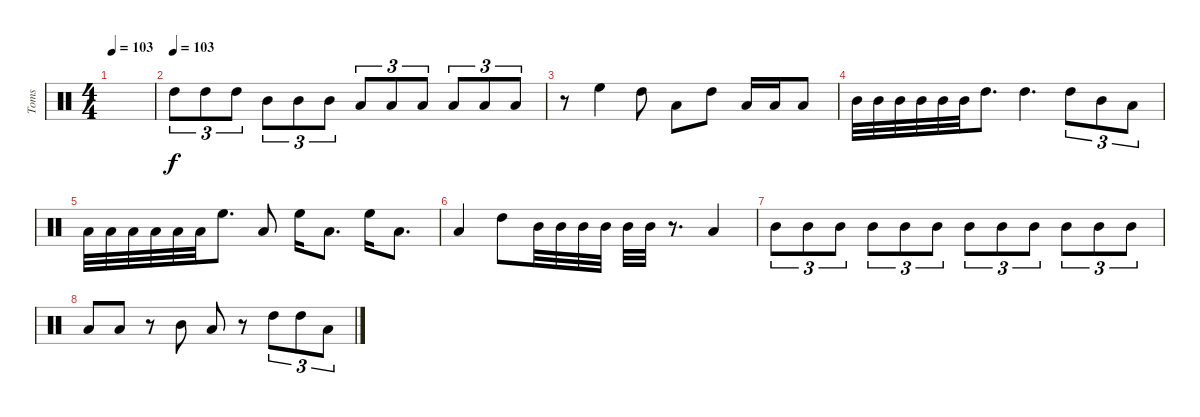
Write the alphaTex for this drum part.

\track ("Toms" "Toms") {instrument percussion}
\staff {score}
\articulation defaults
\ts (4 4)
\tempo 103
\clef neutral
\ks c
|
\tempo (103)
"High Tom (hit)".8{tu (3 2)} "High Tom (hit)".8{tu (3 2)} "High Tom (hit)".8{tu (3 2)} "Mid Tom (hit)".8{tu (3 2)} "Mid Tom (hit)".8{tu (3 2)} "Mid Tom (hit)".8{tu (3 2)} "Low Tom (hit)".8{tu (3 2)} "Low Tom (hit)".8{tu (3 2)} "Low Tom (hit)".8{tu (3 2)} "Low Floor Tom (hit)".8{tu (3 2)} "Low Floor Tom (hit)".8{tu (3 2)} "Low Floor Tom (hit)".8{tu (3 2)} |
r.8 "High Floor Tom (hit)".4 "High Tom (hit)".8 "Low Tom (hit)".8 "High Tom (hit)".8 "Low Tom (hit)".16 "Low Tom (hit)".16 "Low Tom (hit)".8 |
"Mid Tom (hit)".32 "Mid Tom (hit)".32 "Mid Tom (hit)".32 "Mid Tom (hit)".32 "Mid Tom (hit)".32 "Mid Tom (hit)".32 "High Tom (hit)".8{d} "High Tom (hit)".4{d} "High Tom (hit)".8{tu (3 2)} "Mid Tom (hit)".8{tu (3 2)} "Low Tom (hit)".8{tu (3 2)} |
"Low Floor Tom (hit)".32 "Low Floor Tom (hit)".32 "Low Floor Tom (hit)".32 "Low Floor Tom (hit)".32 "Low Floor Tom (hit)".32 "Low Floor Tom (hit)".32 "High Floor Tom (hit)".8{d} "Low Tom (hit)".8 "High Floor Tom (hit)".16 "Low Tom (hit)".8{d} "High Floor Tom (hit)".16 "Low Tom (hit)".8{d} |
"Low Tom (hit)".4 "High Tom (hit)".8 "Mid Tom (hit)".32 "Mid Tom (hit)".32 "Mid Tom (hit)".32 "Mid Tom (hit)".32 "Mid Tom (hit)".32 "Mid Tom (hit)".32 r.8{d} "Low Tom (hit)".4 |
"Mid Tom (hit)".8{tu (3 2)} "Mid Tom (hit)".8{tu (3 2)} "Mid Tom (hit)".8{tu (3 2)} "Mid Tom (hit)".8{tu (3 2)} "Mid Tom (hit)".8{tu (3 2)} "Mid Tom (hit)".8{tu (3 2)} "Mid Tom (hit)".8{tu (3 2)} "Mid Tom (hit)".8{tu (3 2)} "Mid Tom (hit)".8{tu (3 2)} "Mid Tom (hit)".8{tu (3 2)} "Mid Tom (hit)".8{tu (3 2)} "Mid Tom (hit)".8{tu (3 2)} |
"Low Tom (hit)".8 "Low Tom (hit)".8 r.8 "Mid Tom (hit)".8 "Low Tom (hit)".8 r.8 "High Tom (hit)".8{tu (3 2)} "High Tom (hit)".8{tu (3 2)} "Low Tom (hit)".8{tu (3 2)}
